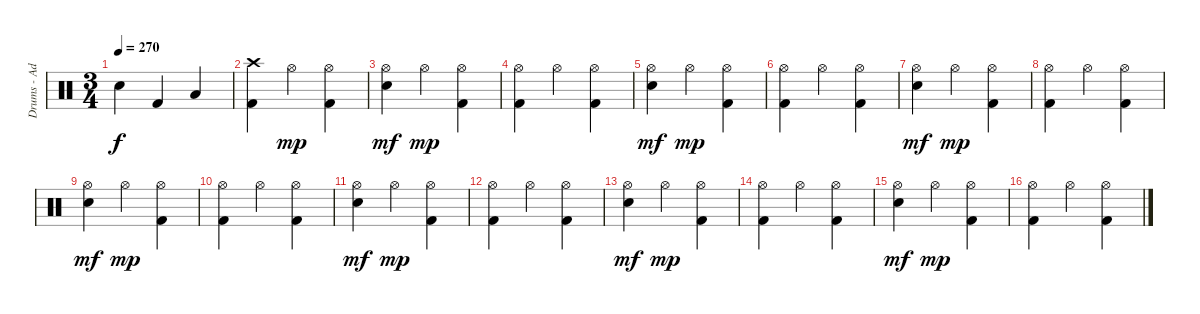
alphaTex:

\track ("Drums - Adam" "Drums - Ad") {instrument percussion}
\staff {score}
\articulation defaults
\ts (3 4)
\tempo 270
\clef neutral
\ks c "Electric Snare (hit)".4{dy f} "Kick (hit) 2".4 "Low Tom (hit)".4
|
("Kick (hit) 2" "Crash high (hit)").4 "Hi-Hat (open)".4{dy mp} ("Hi-Hat (open)" "Kick (hit) 2").4 |
("Hi-Hat (open)" "Electric Snare (hit)").4{dy mf} "Hi-Hat (open)".4{dy mp} ("Hi-Hat (open)" "Kick (hit) 2").4 |
("Hi-Hat (open)" "Kick (hit) 2").4 "Hi-Hat (open)".4 ("Hi-Hat (open)" "Kick (hit) 2").4 |
("Hi-Hat (open)" "Electric Snare (hit)").4{dy mf} "Hi-Hat (open)".4{dy mp} ("Hi-Hat (open)" "Kick (hit) 2").4 |
("Hi-Hat (open)" "Kick (hit) 2").4 "Hi-Hat (open)".4 ("Hi-Hat (open)" "Kick (hit) 2").4 |
("Hi-Hat (open)" "Electric Snare (hit)").4{dy mf} "Hi-Hat (open)".4{dy mp} ("Hi-Hat (open)" "Kick (hit) 2").4 |
("Hi-Hat (open)" "Kick (hit) 2").4 "Hi-Hat (open)".4 ("Hi-Hat (open)" "Kick (hit) 2").4 |
("Hi-Hat (open)" "Electric Snare (hit)").4{dy mf} "Hi-Hat (open)".4{dy mp} ("Hi-Hat (open)" "Kick (hit) 2").4 |
("Hi-Hat (open)" "Kick (hit) 2").4 "Hi-Hat (open)".4 ("Hi-Hat (open)" "Kick (hit) 2").4 |
("Hi-Hat (open)" "Electric Snare (hit)").4{dy mf} "Hi-Hat (open)".4{dy mp} ("Hi-Hat (open)" "Kick (hit) 2").4 |
("Hi-Hat (open)" "Kick (hit) 2").4 "Hi-Hat (open)".4 ("Hi-Hat (open)" "Kick (hit) 2").4 |
("Hi-Hat (open)" "Electric Snare (hit)").4{dy mf} "Hi-Hat (open)".4{dy mp} ("Hi-Hat (open)" "Kick (hit) 2").4 |
("Hi-Hat (open)" "Kick (hit) 2").4 "Hi-Hat (open)".4 ("Hi-Hat (open)" "Kick (hit) 2").4 |
("Hi-Hat (open)" "Electric Snare (hit)").4{dy mf} "Hi-Hat (open)".4{dy mp} ("Hi-Hat (open)" "Kick (hit) 2").4 |
("Hi-Hat (open)" "Kick (hit) 2").4 "Hi-Hat (open)".4 ("Hi-Hat (open)" "Kick (hit) 2").4
